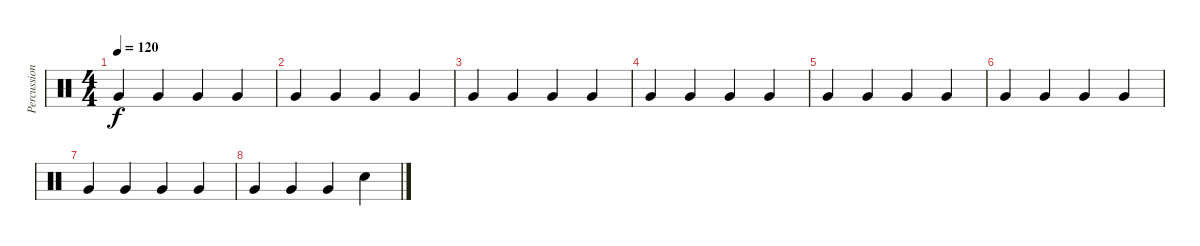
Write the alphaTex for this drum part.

\track ("Percussion" "Percussion") {instrument percussion}
\staff {score}
\articulation defaults
\ts (4 4)
\tempo 120
\clef neutral
\ks c "Very Low Tom (hit)".4{dy f} "Very Low Tom (hit)".4 "Very Low Tom (hit)".4 "Very Low Tom (hit)".4
|
"Very Low Tom (hit)".4 "Very Low Tom (hit)".4 "Very Low Tom (hit)".4 "Very Low Tom (hit)".4 |
"Very Low Tom (hit)".4 "Very Low Tom (hit)".4 "Very Low Tom (hit)".4 "Very Low Tom (hit)".4 |
"Very Low Tom (hit)".4 "Very Low Tom (hit)".4 "Very Low Tom (hit)".4 "Very Low Tom (hit)".4 |
"Very Low Tom (hit)".4 "Very Low Tom (hit)".4 "Very Low Tom (hit)".4 "Very Low Tom (hit)".4 |
"Very Low Tom (hit)".4 "Very Low Tom (hit)".4 "Very Low Tom (hit)".4 "Very Low Tom (hit)".4 |
"Very Low Tom (hit)".4 "Very Low Tom (hit)".4 "Very Low Tom (hit)".4 "Very Low Tom (hit)".4 |
"Very Low Tom (hit)".4 "Very Low Tom (hit)".4 "Very Low Tom (hit)".4 "Hand Clap (hit)".4
